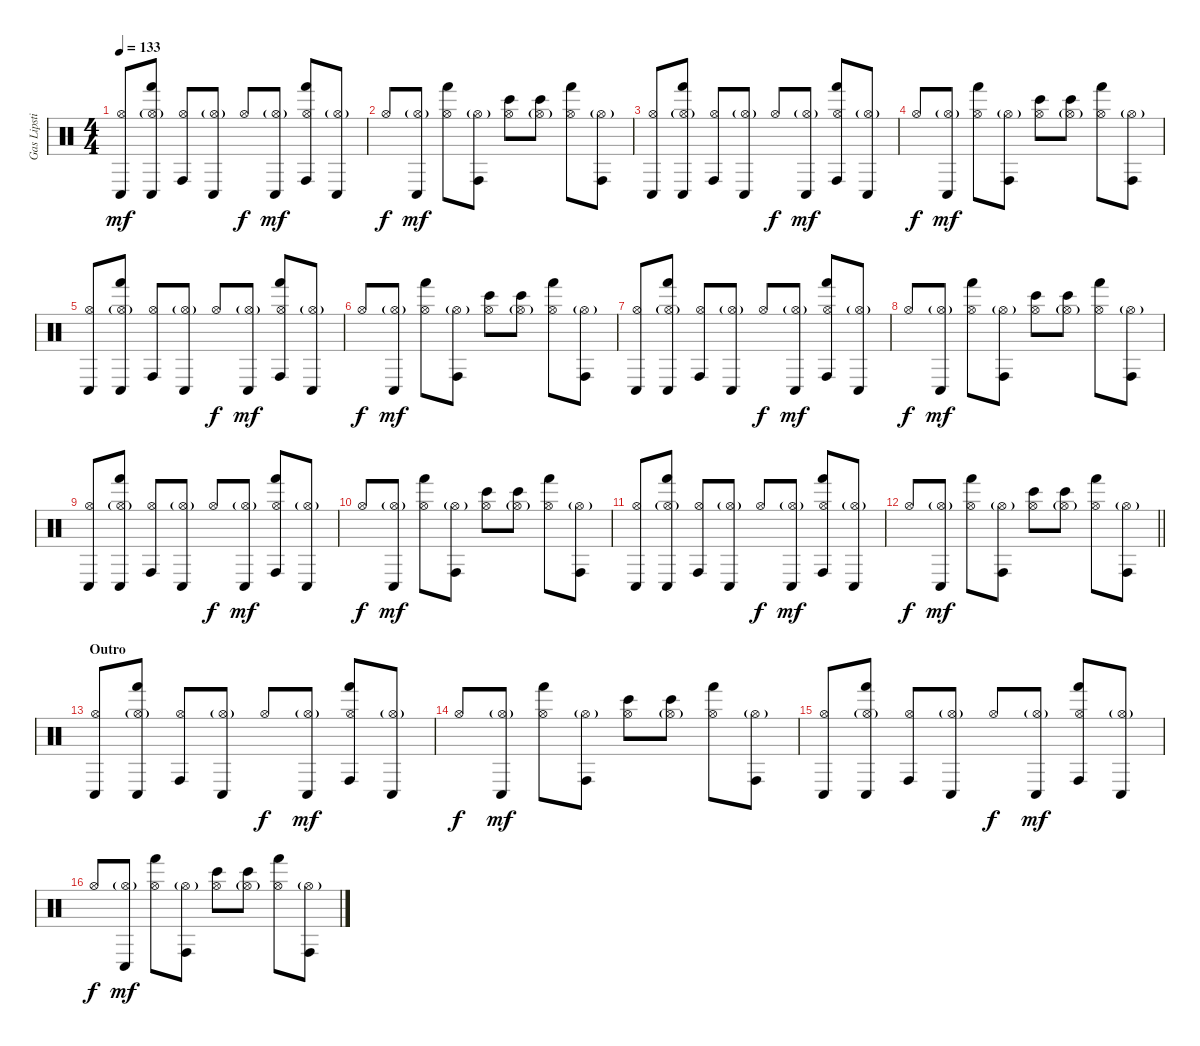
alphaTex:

\track ("Gas Lipstick (Drums)" "Gas Lipsti") {instrument percussion}
\staff {score}
\articulation defaults
\ts (4 4)
\tempo 133
\clef neutral
\ks c
("Hi-Hat (open)" "Conga low (hit)").8{dy mf} ("Hi-Hat (open)"{g} "Hand (hit)" "Conga low (hit)").8 ("Hi-Hat (open)" "Conga high (hit)").8 ("Hi-Hat (open)"{g} "Conga low (hit)").8 "Hi-Hat (open)".8{dy f} ("Hi-Hat (open)"{g} "Conga low (hit)").8{dy mf} ("Hi-Hat (open)" "Hand (hit)" "Conga high (hit)").8 ("Hi-Hat (open)"{g} "Conga low (hit)").8 |
"Hi-Hat (open)".8{dy f} ("Hi-Hat (open)"{g} "Conga low (hit)").8{dy mf} ("Hi-Hat (open)" "Hand (hit)").8 ("Hi-Hat (open)"{g} "Conga high (hit)").8 ("Hi-Hat (open)" "Bongo High (hit)").8 ("Hi-Hat (open)"{g} "Bongo High (hit)").8 ("Hi-Hat (open)" "Hand (hit)").8 ("Hi-Hat (open)"{g} "Conga high (hit)").8 |
("Hi-Hat (open)" "Conga low (hit)").8 ("Hi-Hat (open)"{g} "Hand (hit)" "Conga low (hit)").8 ("Hi-Hat (open)" "Conga high (hit)").8 ("Hi-Hat (open)"{g} "Conga low (hit)").8 "Hi-Hat (open)".8{dy f} ("Hi-Hat (open)"{g} "Conga low (hit)").8{dy mf} ("Hi-Hat (open)" "Hand (hit)" "Conga high (hit)").8 ("Hi-Hat (open)"{g} "Conga low (hit)").8 |
"Hi-Hat (open)".8{dy f} ("Hi-Hat (open)"{g} "Conga low (hit)").8{dy mf} ("Hi-Hat (open)" "Hand (hit)").8 ("Hi-Hat (open)"{g} "Conga high (hit)").8 ("Hi-Hat (open)" "Bongo High (hit)").8 ("Hi-Hat (open)"{g} "Bongo High (hit)").8 ("Hi-Hat (open)" "Hand (hit)").8 ("Hi-Hat (open)"{g} "Conga high (hit)").8 |
("Hi-Hat (open)" "Conga low (hit)").8 ("Hi-Hat (open)"{g} "Hand (hit)" "Conga low (hit)").8 ("Hi-Hat (open)" "Conga high (hit)").8 ("Hi-Hat (open)"{g} "Conga low (hit)").8 "Hi-Hat (open)".8{dy f} ("Hi-Hat (open)"{g} "Conga low (hit)").8{dy mf} ("Hi-Hat (open)" "Hand (hit)" "Conga high (hit)").8 ("Hi-Hat (open)"{g} "Conga low (hit)").8 |
"Hi-Hat (open)".8{dy f} ("Hi-Hat (open)"{g} "Conga low (hit)").8{dy mf} ("Hi-Hat (open)" "Hand (hit)").8 ("Hi-Hat (open)"{g} "Conga high (hit)").8 ("Hi-Hat (open)" "Bongo High (hit)").8 ("Hi-Hat (open)"{g} "Bongo High (hit)").8 ("Hi-Hat (open)" "Hand (hit)").8 ("Hi-Hat (open)"{g} "Conga high (hit)").8 |
("Hi-Hat (open)" "Conga low (hit)").8 ("Hi-Hat (open)"{g} "Hand (hit)" "Conga low (hit)").8 ("Hi-Hat (open)" "Conga high (hit)").8 ("Hi-Hat (open)"{g} "Conga low (hit)").8 "Hi-Hat (open)".8{dy f} ("Hi-Hat (open)"{g} "Conga low (hit)").8{dy mf} ("Hi-Hat (open)" "Hand (hit)" "Conga high (hit)").8 ("Hi-Hat (open)"{g} "Conga low (hit)").8 |
"Hi-Hat (open)".8{dy f} ("Hi-Hat (open)"{g} "Conga low (hit)").8{dy mf} ("Hi-Hat (open)" "Hand (hit)").8 ("Hi-Hat (open)"{g} "Conga high (hit)").8 ("Hi-Hat (open)" "Bongo High (hit)").8 ("Hi-Hat (open)"{g} "Bongo High (hit)").8 ("Hi-Hat (open)" "Hand (hit)").8 ("Hi-Hat (open)"{g} "Conga high (hit)").8 |
("Hi-Hat (open)" "Conga low (hit)").8 ("Hi-Hat (open)"{g} "Hand (hit)" "Conga low (hit)").8 ("Hi-Hat (open)" "Conga high (hit)").8 ("Hi-Hat (open)"{g} "Conga low (hit)").8 "Hi-Hat (open)".8{dy f} ("Hi-Hat (open)"{g} "Conga low (hit)").8{dy mf} ("Hi-Hat (open)" "Hand (hit)" "Conga high (hit)").8 ("Hi-Hat (open)"{g} "Conga low (hit)").8 |
"Hi-Hat (open)".8{dy f} ("Hi-Hat (open)"{g} "Conga low (hit)").8{dy mf} ("Hi-Hat (open)" "Hand (hit)").8 ("Hi-Hat (open)"{g} "Conga high (hit)").8 ("Hi-Hat (open)" "Bongo High (hit)").8 ("Hi-Hat (open)"{g} "Bongo High (hit)").8 ("Hi-Hat (open)" "Hand (hit)").8 ("Hi-Hat (open)"{g} "Conga high (hit)").8 |
("Hi-Hat (open)" "Conga low (hit)").8 ("Hi-Hat (open)"{g} "Hand (hit)" "Conga low (hit)").8 ("Hi-Hat (open)" "Conga high (hit)").8 ("Hi-Hat (open)"{g} "Conga low (hit)").8 "Hi-Hat (open)".8{dy f} ("Hi-Hat (open)"{g} "Conga low (hit)").8{dy mf} ("Hi-Hat (open)" "Hand (hit)" "Conga high (hit)").8 ("Hi-Hat (open)"{g} "Conga low (hit)").8 |
\barLineRight lightlight "Hi-Hat (open)".8{dy f}
("Hi-Hat (open)"{g} "Conga low (hit)").8{dy mf} ("Hi-Hat (open)" "Hand (hit)").8 ("Hi-Hat (open)"{g} "Conga high (hit)").8 ("Hi-Hat (open)" "Bongo High (hit)").8 ("Hi-Hat (open)"{g} "Bongo High (hit)").8 ("Hi-Hat (open)" "Hand (hit)").8 ("Hi-Hat (open)"{g} "Conga high (hit)").8 |
\section ("" "Outro")
("Hi-Hat (open)" "Conga low (hit)").8 ("Hi-Hat (open)"{g} "Hand (hit)" "Conga low (hit)").8 ("Hi-Hat (open)" "Conga high (hit)").8 ("Hi-Hat (open)"{g} "Conga low (hit)").8 "Hi-Hat (open)".8{dy f} ("Hi-Hat (open)"{g} "Conga low (hit)").8{dy mf} ("Hi-Hat (open)" "Hand (hit)" "Conga high (hit)").8 ("Hi-Hat (open)"{g} "Conga low (hit)").8 |
"Hi-Hat (open)".8{dy f} ("Hi-Hat (open)"{g} "Conga low (hit)").8{dy mf} ("Hi-Hat (open)" "Hand (hit)").8 ("Hi-Hat (open)"{g} "Conga high (hit)").8 ("Hi-Hat (open)" "Bongo High (hit)").8 ("Hi-Hat (open)"{g} "Bongo High (hit)").8 ("Hi-Hat (open)" "Hand (hit)").8 ("Hi-Hat (open)"{g} "Conga high (hit)").8 |
("Hi-Hat (open)" "Conga low (hit)").8 ("Hi-Hat (open)"{g} "Hand (hit)" "Conga low (hit)").8 ("Hi-Hat (open)" "Conga high (hit)").8 ("Hi-Hat (open)"{g} "Conga low (hit)").8 "Hi-Hat (open)".8{dy f} ("Hi-Hat (open)"{g} "Conga low (hit)").8{dy mf} ("Hi-Hat (open)" "Hand (hit)" "Conga high (hit)").8 ("Hi-Hat (open)"{g} "Conga low (hit)").8 |
"Hi-Hat (open)".8{dy f} ("Hi-Hat (open)"{g} "Conga low (hit)").8{dy mf} ("Hi-Hat (open)" "Hand (hit)").8 ("Hi-Hat (open)"{g} "Conga high (hit)").8 ("Hi-Hat (open)" "Bongo High (hit)").8 ("Hi-Hat (open)"{g} "Bongo High (hit)").8 ("Hi-Hat (open)" "Hand (hit)").8 ("Hi-Hat (open)"{g} "Conga high (hit)").8
